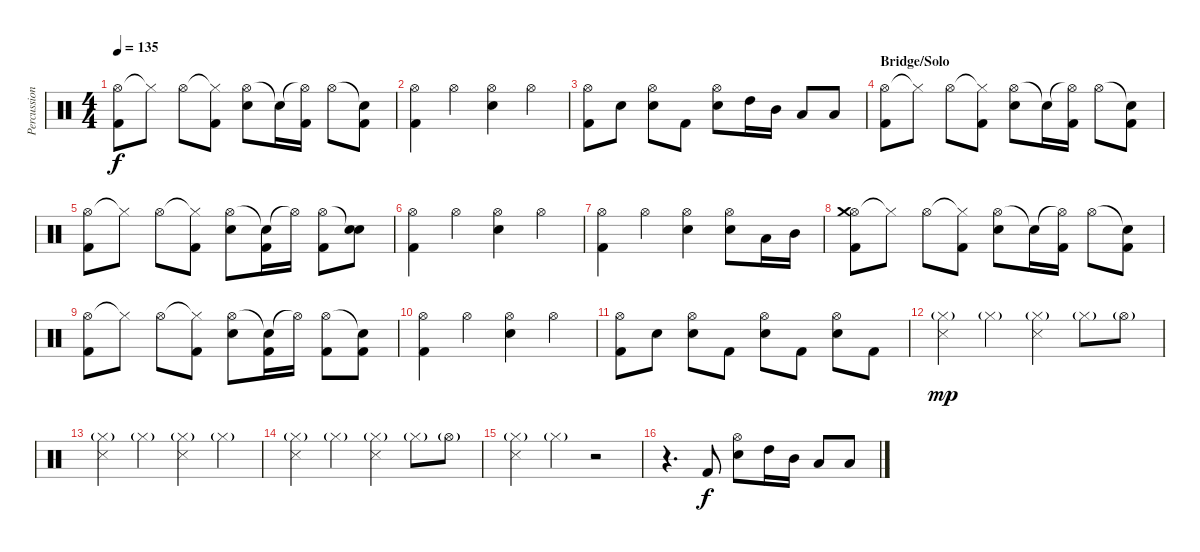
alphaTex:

\track ("Percussion" "Percussion") {instrument percussion}
\staff {score}
\articulation defaults
\ts (4 4)
\tempo 135
\clef neutral
\ks c
("Hi-Hat (open)" "Kick (hit) 2").8{dy f} "Hi-Hat (closed)"{t}.8 "Hi-Hat (open)".8 ("Hi-Hat (closed)"{t} "Kick (hit) 2").8 ("Hi-Hat (open)" "Electric Snare (hit)").8 "Snare (hit)"{t}.16 ("Hi-Hat (open)"{t} "Kick (hit) 2").16 "Hi-Hat (open)".8 ("Snare (hit)"{t} "Kick (hit) 2").8 |
("Hi-Hat (open)" "Kick (hit) 2").4 "Hi-Hat (open)".4 ("Hi-Hat (open)" "Electric Snare (hit)").4 "Hi-Hat (open)".4 |
("Hi-Hat (open)" "Kick (hit) 2").8 "Electric Snare (hit)".8 ("Hi-Hat (open)" "Electric Snare (hit)").8 "Kick (hit) 2".8 ("Hi-Hat (open)" "Electric Snare (hit)").8 "High Tom (hit)".16 "Mid Tom (hit)".16 "Low Tom (hit)".8 "Low Floor Tom (hit)".8 |
\section ("" "Bridge/Solo")
("Hi-Hat (open)" "Kick (hit) 2").8 "Hi-Hat (closed)"{t}.8 "Hi-Hat (open)".8 ("Hi-Hat (closed)"{t} "Kick (hit) 2").8 ("Hi-Hat (open)" "Electric Snare (hit)").8 "Snare (hit)"{t}.16 ("Hi-Hat (open)"{t} "Kick (hit) 2").16 "Hi-Hat (open)".8 ("Snare (hit)"{t} "Kick (hit) 2").8 |
("Hi-Hat (open)" "Kick (hit) 2").8 "Hi-Hat (closed)"{t}.8 "Hi-Hat (open)".8 ("Hi-Hat (closed)"{t} "Kick (hit) 2").8 ("Hi-Hat (open)" "Electric Snare (hit)").8 ("Snare (hit)"{t} "Kick (hit) 2").16 "Hi-Hat (open)"{t}.16 ("Hi-Hat (open)" "Kick (hit) 2").8 ("Snare (hit)"{t} "Electric Snare (hit)").8 |
("Hi-Hat (open)" "Kick (hit) 2").4 "Hi-Hat (open)".4 ("Hi-Hat (open)" "Electric Snare (hit)").4 "Hi-Hat (open)".4 |
("Hi-Hat (open)" "Kick (hit) 2").4 "Hi-Hat (open)".4 ("Hi-Hat (open)" "Electric Snare (hit)").4 ("Hi-Hat (open)" "Electric Snare (hit)").8 "Low Floor Tom (hit)".16 "Mid Tom (hit)".16 |
("Hi-Hat (open)" "Kick (hit) 2" "Crash medium (hit)").8 "Hi-Hat (closed)"{t}.8 "Hi-Hat (open)".8 ("Hi-Hat (closed)"{t} "Kick (hit) 2").8 ("Hi-Hat (open)" "Electric Snare (hit)").8 "Snare (hit)"{t}.16 ("Hi-Hat (open)"{t} "Kick (hit) 2").16 "Hi-Hat (open)".8 ("Snare (hit)"{t} "Kick (hit) 2").8 |
("Hi-Hat (open)" "Kick (hit) 2").8 "Hi-Hat (closed)"{t}.8 "Hi-Hat (open)".8 ("Hi-Hat (closed)"{t} "Kick (hit) 2").8 ("Hi-Hat (open)" "Electric Snare (hit)").8 ("Snare (hit)"{t} "Kick (hit) 2").16 "Hi-Hat (open)"{t}.16 ("Hi-Hat (open)" "Kick (hit) 2").8 ("Snare (hit)"{t} "Kick (hit) 2").8 |
("Hi-Hat (open)" "Kick (hit) 2").4 "Hi-Hat (open)".4 ("Hi-Hat (open)" "Electric Snare (hit)").4 "Hi-Hat (open)".4 |
("Hi-Hat (open)" "Kick (hit) 2").8 "Electric Snare (hit)".8 ("Hi-Hat (open)" "Electric Snare (hit)").8 "Kick (hit) 2".8 ("Hi-Hat (open)" "Electric Snare (hit)").8 "Kick (hit) 2".8 ("Hi-Hat (open)" "Electric Snare (hit)").8 "Kick (hit) 2".8 |
("Hi-Hat (closed)"{g} "Snare (side stick) 3").4{dy mp} "Hi-Hat (closed)"{g}.4 ("Hi-Hat (closed)"{g} "Snare (side stick) 3").4 "Hi-Hat (closed)"{g}.8 "Hi-Hat (open)"{g}.8 |
("Hi-Hat (closed)"{g} "Snare (side stick) 3").4 "Hi-Hat (closed)"{g}.4 ("Hi-Hat (closed)"{g} "Snare (side stick) 3").4 "Hi-Hat (closed)"{g}.4 |
("Hi-Hat (closed)"{g} "Snare (side stick) 3").4 "Hi-Hat (closed)"{g}.4 ("Hi-Hat (closed)"{g} "Snare (side stick) 3").4 "Hi-Hat (closed)"{g}.8 "Hi-Hat (open)"{g}.8 |
("Hi-Hat (closed)"{g} "Snare (side stick) 3").4 "Hi-Hat (closed)"{g}.4 r.2 |
r.4{d} "Kick (hit) 2".8{dy f} ("Hi-Hat (open)" "Electric Snare (hit)").8 "High Tom (hit)".16 "Mid Tom (hit)".16 "Low Tom (hit)".8 "Low Floor Tom (hit)".8
